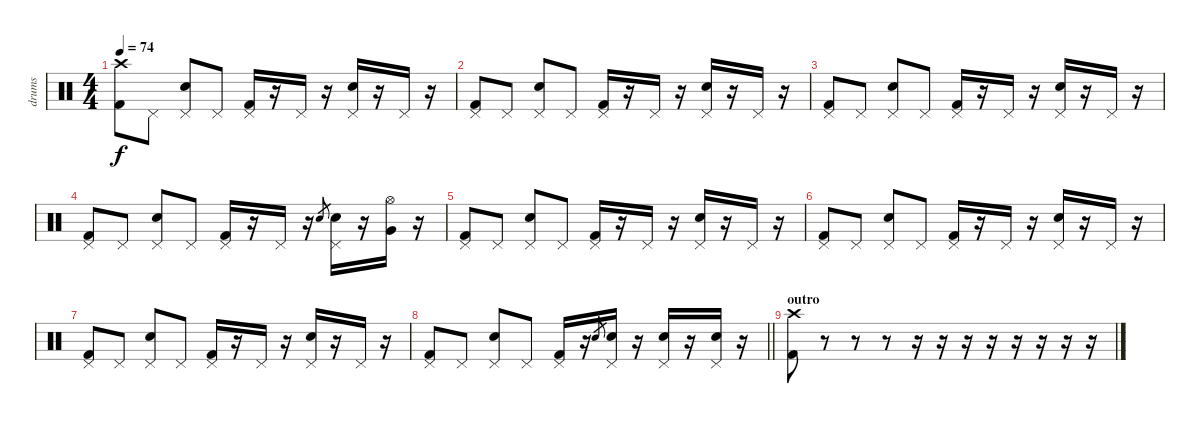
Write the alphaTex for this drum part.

\track ("drums" "drums") {instrument percussion}
\staff {score}
\articulation defaults
\ts (4 4)
\tempo 74
\clef neutral
\ks c
("Kick (hit) 2" "Crash high (hit)").8{dy f} "Pedal Hi-Hat (hit)".8 ("Electric Snare (hit)" "Pedal Hi-Hat (hit)").8 "Pedal Hi-Hat (hit)".8 ("Kick (hit) 2" "Pedal Hi-Hat (hit)").16 r.16 "Pedal Hi-Hat (hit)".16 r.16 ("Electric Snare (hit)" "Pedal Hi-Hat (hit)").16 r.16 "Pedal Hi-Hat (hit)".16 r.16 |
("Kick (hit) 2" "Pedal Hi-Hat (hit)").8 "Pedal Hi-Hat (hit)".8 ("Electric Snare (hit)" "Pedal Hi-Hat (hit)").8 "Pedal Hi-Hat (hit)".8 ("Kick (hit) 2" "Pedal Hi-Hat (hit)").16 r.16 "Pedal Hi-Hat (hit)".16 r.16 ("Electric Snare (hit)" "Pedal Hi-Hat (hit)").16 r.16 "Pedal Hi-Hat (hit)".16 r.16 |
("Kick (hit) 2" "Pedal Hi-Hat (hit)").8 "Pedal Hi-Hat (hit)".8 ("Electric Snare (hit)" "Pedal Hi-Hat (hit)").8 "Pedal Hi-Hat (hit)".8 ("Kick (hit) 2" "Pedal Hi-Hat (hit)").16 r.16 "Pedal Hi-Hat (hit)".16 r.16 ("Electric Snare (hit)" "Pedal Hi-Hat (hit)").16 r.16 "Pedal Hi-Hat (hit)".16 r.16 |
("Kick (hit) 2" "Pedal Hi-Hat (hit)").8 "Pedal Hi-Hat (hit)".8 ("Electric Snare (hit)" "Pedal Hi-Hat (hit)").8 "Pedal Hi-Hat (hit)".8 ("Kick (hit) 2" "Pedal Hi-Hat (hit)").16 r.16 "Pedal Hi-Hat (hit)".16 r.16 "Electric Snare (hit)".8{gr} ("Electric Snare (hit)" "Pedal Hi-Hat (hit)").16 r.16 ("Very Low Tom (hit)" "Hi-Hat (open)").16 r.16 |
("Kick (hit) 2" "Pedal Hi-Hat (hit)").8 "Pedal Hi-Hat (hit)".8 ("Electric Snare (hit)" "Pedal Hi-Hat (hit)").8 "Pedal Hi-Hat (hit)".8 ("Kick (hit) 2" "Pedal Hi-Hat (hit)").16 r.16 "Pedal Hi-Hat (hit)".16 r.16 ("Electric Snare (hit)" "Pedal Hi-Hat (hit)").16 r.16 "Pedal Hi-Hat (hit)".16 r.16 |
("Kick (hit) 2" "Pedal Hi-Hat (hit)").8 "Pedal Hi-Hat (hit)".8 ("Electric Snare (hit)" "Pedal Hi-Hat (hit)").8 "Pedal Hi-Hat (hit)".8 ("Kick (hit) 2" "Pedal Hi-Hat (hit)").16 r.16 "Pedal Hi-Hat (hit)".16 r.16 ("Electric Snare (hit)" "Pedal Hi-Hat (hit)").16 r.16 "Pedal Hi-Hat (hit)".16 r.16 |
("Kick (hit) 2" "Pedal Hi-Hat (hit)").8 "Pedal Hi-Hat (hit)".8 ("Electric Snare (hit)" "Pedal Hi-Hat (hit)").8 "Pedal Hi-Hat (hit)".8 ("Kick (hit) 2" "Pedal Hi-Hat (hit)").16 r.16 "Pedal Hi-Hat (hit)".16 r.16 ("Electric Snare (hit)" "Pedal Hi-Hat (hit)").16 r.16 "Pedal Hi-Hat (hit)".16 r.16 |
\barLineRight lightlight
("Kick (hit) 2" "Pedal Hi-Hat (hit)").8 "Pedal Hi-Hat (hit)".8 ("Electric Snare (hit)" "Pedal Hi-Hat (hit)").8 "Pedal Hi-Hat (hit)".8 ("Kick (hit) 2" "Pedal Hi-Hat (hit)").16 r.16 "Electric Snare (hit)".8{gr} ("Electric Snare (hit)" "Pedal Hi-Hat (hit)").16 r.16 ("Electric Snare (hit)" "Pedal Hi-Hat (hit)").16 r.16 ("Electric Snare (hit)" "Pedal Hi-Hat (hit)").16 r.16 |
\section ("" "outro")
("Kick (hit) 2" "Crash high (hit)").8 r.8 r.8 r.8 r.16 r.16 r.16 r.16 r.16 r.16 r.16 r.16
